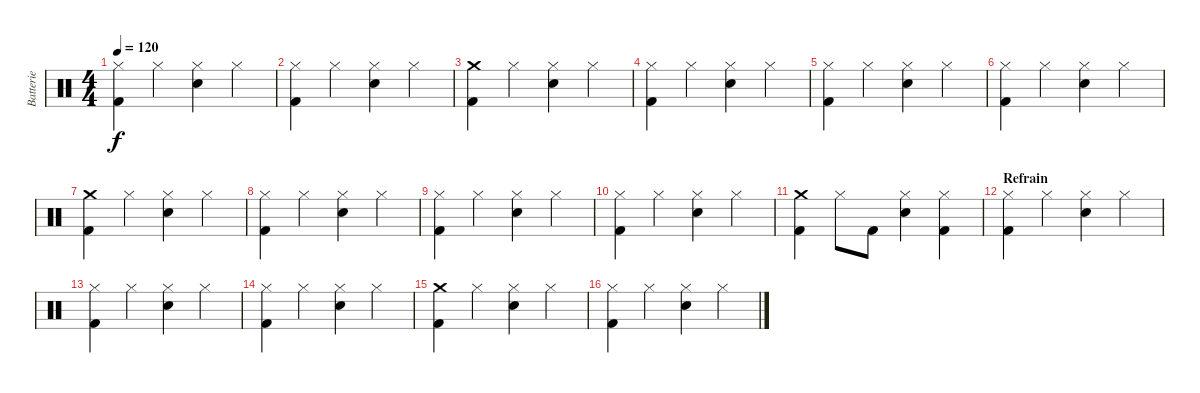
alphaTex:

\track ("Batterie" "Batterie") {instrument percussion}
\staff {score}
\articulation defaults
\ts (4 4)
\tempo 120
\clef neutral
\ks c
("Hi-Hat (closed)" "Kick (hit) 2").4{dy f} "Hi-Hat (closed)".4 ("Hi-Hat (closed)" "Snare (hit) 2").4 "Hi-Hat (closed)".4 |
("Hi-Hat (closed)" "Kick (hit) 2").4 "Hi-Hat (closed)".4 ("Hi-Hat (closed)" "Snare (hit) 2").4 "Hi-Hat (closed)".4 |
("Crash medium (hit)" "Kick (hit) 2").4 "Hi-Hat (closed)".4 ("Hi-Hat (closed)" "Snare (hit) 2").4 "Hi-Hat (closed)".4 |
("Hi-Hat (closed)" "Kick (hit) 2").4 "Hi-Hat (closed)".4 ("Hi-Hat (closed)" "Snare (hit) 2").4 "Hi-Hat (closed)".4 |
("Hi-Hat (closed)" "Kick (hit) 2").4 "Hi-Hat (closed)".4 ("Hi-Hat (closed)" "Snare (hit) 2").4 "Hi-Hat (closed)".4 |
("Hi-Hat (closed)" "Kick (hit) 2").4 "Hi-Hat (closed)".4 ("Hi-Hat (closed)" "Snare (hit) 2").4 "Hi-Hat (closed)".4 |
("Crash medium (hit)" "Kick (hit) 2").4 "Hi-Hat (closed)".4 ("Hi-Hat (closed)" "Snare (hit) 2").4 "Hi-Hat (closed)".4 |
("Hi-Hat (closed)" "Kick (hit) 2").4 "Hi-Hat (closed)".4 ("Hi-Hat (closed)" "Snare (hit) 2").4 "Hi-Hat (closed)".4 |
("Hi-Hat (closed)" "Kick (hit) 2").4 "Hi-Hat (closed)".4 ("Hi-Hat (closed)" "Snare (hit) 2").4 "Hi-Hat (closed)".4 |
("Hi-Hat (closed)" "Kick (hit) 2").4 "Hi-Hat (closed)".4 ("Hi-Hat (closed)" "Snare (hit) 2").4 "Hi-Hat (closed)".4 |
("Crash medium (hit)" "Kick (hit) 2").4 "Hi-Hat (closed)".8 "Kick (hit) 2".8 ("Hi-Hat (closed)" "Snare (hit) 2").4 ("Hi-Hat (closed)" "Kick (hit) 2").4 |
\section ("" "Refrain")
("Hi-Hat (closed)" "Kick (hit) 2").4 "Hi-Hat (closed)".4 ("Hi-Hat (closed)" "Snare (hit) 2").4 "Hi-Hat (closed)".4 |
("Hi-Hat (closed)" "Kick (hit) 2").4 "Hi-Hat (closed)".4 ("Hi-Hat (closed)" "Snare (hit) 2").4 "Hi-Hat (closed)".4 |
("Hi-Hat (closed)" "Kick (hit) 2").4 "Hi-Hat (closed)".4 ("Hi-Hat (closed)" "Snare (hit) 2").4 "Hi-Hat (closed)".4 |
("Crash medium (hit)" "Kick (hit) 2").4 "Hi-Hat (closed)".4 ("Hi-Hat (closed)" "Snare (hit) 2").4 "Hi-Hat (closed)".4 |
("Hi-Hat (closed)" "Kick (hit) 2").4 "Hi-Hat (closed)".4 ("Hi-Hat (closed)" "Snare (hit) 2").4 "Hi-Hat (closed)".4
